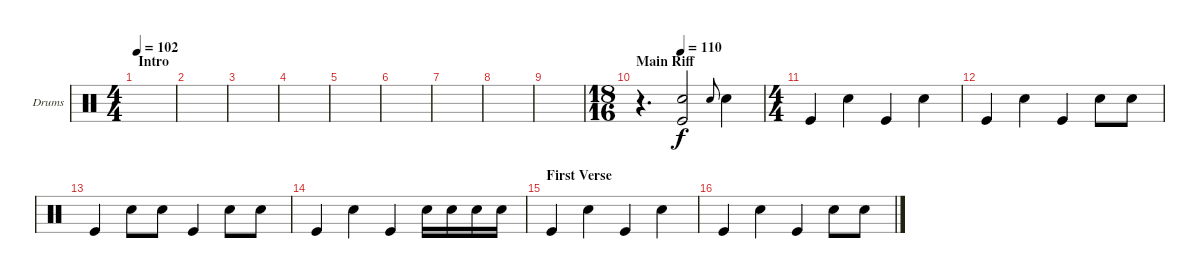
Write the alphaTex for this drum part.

\defaultSystemsLayout 4
\bracketExtendMode groupsimilarinstruments
\firstSystemTrackNameOrientation horizontal
\otherSystemsTrackNameOrientation horizontal
\track ("Drumkit" "Drums") {instrument percussion}
\staff {score}
\articulation defaults
\ts (4 4)
\section ("" "Intro")
\tempo 102
\clef neutral
\scale
0.472222
\ks c
|
\scale
0.263889 |
\scale
0.263889 |
\scale
0.333333 |
\scale
0.333333 |
\scale
0.333333 |
\scale
0.333333 |
\scale
0.333333 |
\scale
0.333333 |
\ts (18 16)
\section ("" "Main Riff")
\tempo (110 0.333333)
\scale
0.390805 r.4{d} ("Kick (hit)" "Snare (hit) 2").2 "Snare (hit) 2".8{gr onbeat} "Snare (hit) 2".4 |
\ts (4 4)
\scale
0.390805 "Kick (hit)".4 "Snare (hit) 2".4 "Kick (hit)".4 "Snare (hit) 2".4 |
\scale
0.218391 "Kick (hit)".4 "Snare (hit) 2".4 "Kick (hit)".4 "Snare (hit) 2".8 "Snare (hit) 2".8 |
\scale
0.333333 "Kick (hit)".4 "Snare (hit) 2".8 "Snare (hit) 2".8 "Kick (hit)".4 "Snare (hit) 2".8 "Snare (hit) 2".8 |
\scale
0.333333 "Kick (hit)".4 "Snare (hit) 2".4 "Kick (hit)".4 "Snare (hit) 2".16 "Snare (hit) 2".16 "Snare (hit) 2".16 "Snare (hit) 2".16 |
\section ("" "First Verse")
\scale
0.333333 "Kick (hit)".4 "Snare (hit) 2".4 "Kick (hit)".4 "Snare (hit) 2".4 |
\scale
0.333333 "Kick (hit)".4 "Snare (hit) 2".4 "Kick (hit)".4 "Snare (hit) 2".8 "Snare (hit) 2".8
